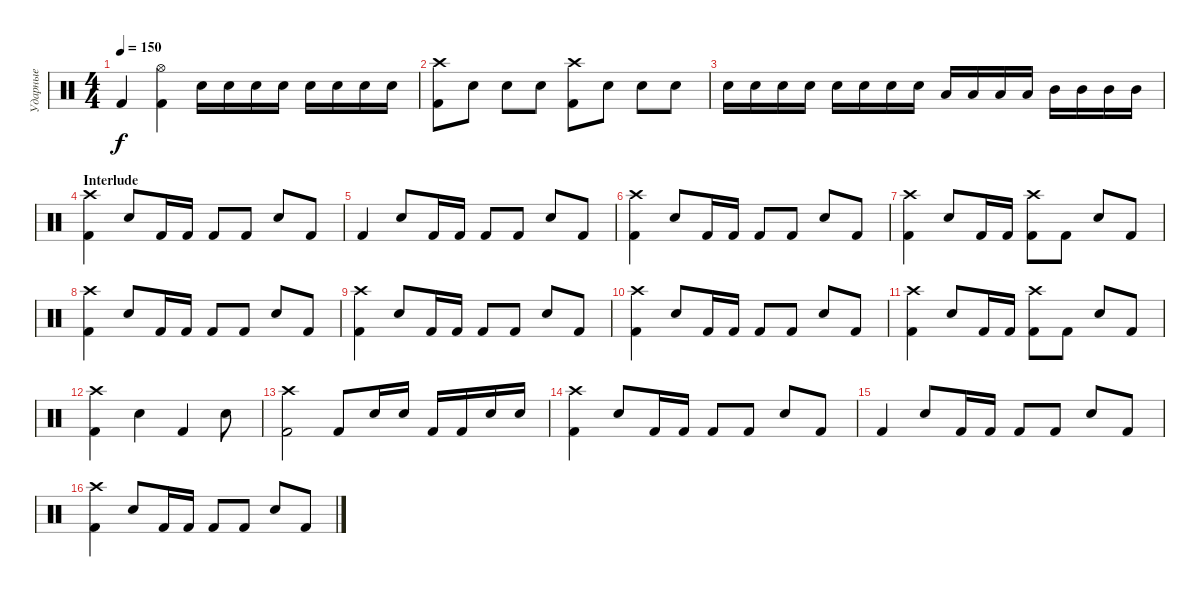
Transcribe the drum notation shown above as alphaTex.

\track ("Ударные" "Ударные") {instrument percussion}
\staff {score}
\articulation defaults
\ts (4 4)
\tempo 150
\clef neutral
\ks c "Kick (hit) 2".4{dy f}
("Hi-Hat (open)" "Kick (hit) 2").4 "Electric Snare (hit)".16 "Electric Snare (hit)".16 "Electric Snare (hit)".16 "Electric Snare (hit)".16 "Electric Snare (hit)".16 "Electric Snare (hit)".16 "Electric Snare (hit)".16 "Electric Snare (hit)".16 |
("Crash high (hit)" "Kick (hit) 2").8 "Electric Snare (hit)".8 "Electric Snare (hit)".8 "Electric Snare (hit)".8 ("Crash high (hit)" "Kick (hit) 2").8 "Electric Snare (hit)".8 "Electric Snare (hit)".8 "Electric Snare (hit)".8 |
"Electric Snare (hit)".16 "Electric Snare (hit)".16 "Electric Snare (hit)".16 "Electric Snare (hit)".16 "Electric Snare (hit)".16 "Electric Snare (hit)".16 "Electric Snare (hit)".16 "Electric Snare (hit)".16 "Low Tom (hit)".16 "Low Tom (hit)".16 "Low Tom (hit)".16 "Low Tom (hit)".16 "Mid Tom (hit)".16 "Mid Tom (hit)".16 "Mid Tom (hit)".16 "Mid Tom (hit)".16 |
\section ("" "Interlude")
("Crash high (hit)" "Kick (hit) 2").4 "Electric Snare (hit)".8 "Kick (hit) 2".16 "Kick (hit) 2".16 "Kick (hit) 2".8 "Kick (hit) 2".8 "Electric Snare (hit)".8 "Kick (hit) 2".8 |
"Kick (hit) 2".4 "Electric Snare (hit)".8 "Kick (hit) 2".16 "Kick (hit) 2".16 "Kick (hit) 2".8 "Kick (hit) 2".8 "Electric Snare (hit)".8 "Kick (hit) 2".8 |
("Crash high (hit)" "Kick (hit) 2").4 "Electric Snare (hit)".8 "Kick (hit) 2".16 "Kick (hit) 2".16 "Kick (hit) 2".8 "Kick (hit) 2".8 "Electric Snare (hit)".8 "Kick (hit) 2".8 |
("Crash high (hit)" "Kick (hit) 2").4 "Electric Snare (hit)".8 "Kick (hit) 2".16 "Kick (hit) 2".16 ("Kick (hit) 2" "Crash high (hit)").8 "Kick (hit) 2".8 "Electric Snare (hit)".8 "Kick (hit) 2".8 |
("Crash high (hit)" "Kick (hit) 2").4 "Electric Snare (hit)".8 "Kick (hit) 2".16 "Kick (hit) 2".16 "Kick (hit) 2".8 "Kick (hit) 2".8 "Electric Snare (hit)".8 "Kick (hit) 2".8 |
("Crash high (hit)" "Kick (hit) 2").4 "Electric Snare (hit)".8 "Kick (hit) 2".16 "Kick (hit) 2".16 "Kick (hit) 2".8 "Kick (hit) 2".8 "Electric Snare (hit)".8 "Kick (hit) 2".8 |
("Crash high (hit)" "Kick (hit) 2").4 "Electric Snare (hit)".8 "Kick (hit) 2".16 "Kick (hit) 2".16 "Kick (hit) 2".8 "Kick (hit) 2".8 "Electric Snare (hit)".8 "Kick (hit) 2".8 |
("Crash high (hit)" "Kick (hit) 2").4 "Electric Snare (hit)".8 "Kick (hit) 2".16 "Kick (hit) 2".16 ("Crash high (hit)" "Kick (hit) 2").8 "Kick (hit) 2".8 "Electric Snare (hit)".8 "Kick (hit) 2".8 |
("Crash high (hit)" "Kick (hit) 2").4 "Electric Snare (hit)".4 "Kick (hit) 2".4 "Electric Snare (hit)".8 |
("Crash high (hit)" "Kick (hit) 2").2 "Kick (hit) 2".8 "Electric Snare (hit)".16 "Electric Snare (hit)".16 "Kick (hit) 2".16 "Kick (hit) 2".16 "Electric Snare (hit)".16 "Electric Snare (hit)".16 |
("Crash high (hit)" "Kick (hit) 2").4 "Electric Snare (hit)".8 "Kick (hit) 2".16 "Kick (hit) 2".16 "Kick (hit) 2".8 "Kick (hit) 2".8 "Electric Snare (hit)".8 "Kick (hit) 2".8 |
"Kick (hit) 2".4 "Electric Snare (hit)".8 "Kick (hit) 2".16 "Kick (hit) 2".16 "Kick (hit) 2".8 "Kick (hit) 2".8 "Electric Snare (hit)".8 "Kick (hit) 2".8 |
("Crash high (hit)" "Kick (hit) 2").4 "Electric Snare (hit)".8 "Kick (hit) 2".16 "Kick (hit) 2".16 "Kick (hit) 2".8 "Kick (hit) 2".8 "Electric Snare (hit)".8 "Kick (hit) 2".8
